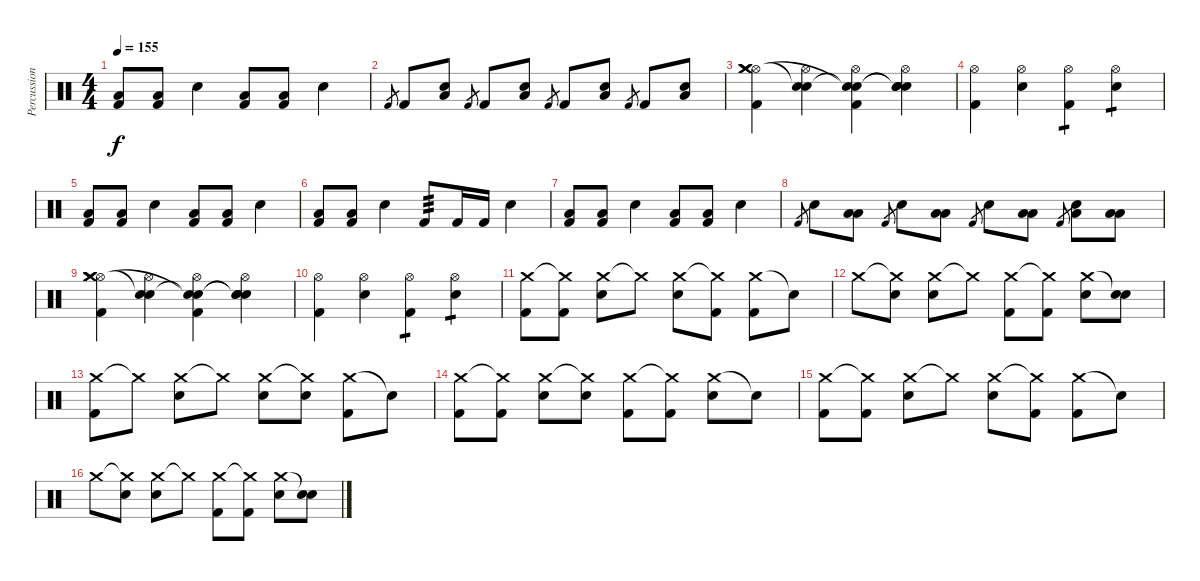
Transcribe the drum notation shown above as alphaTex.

\track ("Percussioni" "Percussion") {instrument percussion}
\staff {score}
\articulation defaults
\ts (4 4)
\tempo 155
\clef neutral
\ks c
("Kick (hit) 2" "Low Tom (hit)").8{dy f} ("Kick (hit) 2" "Low Tom (hit)").8 "Snare (hit) 2".4 ("Kick (hit) 2" "Low Tom (hit)").8 ("Kick (hit) 2" "Low Tom (hit)").8 "Snare (hit) 2".4 |
"Kick (hit) 2".8{gr} "Kick (hit) 2".8 ("Snare (hit) 2" "Low Floor Tom (hit)").8 "Kick (hit) 2".8{gr} "Kick (hit) 2".8 ("Snare (hit) 2" "Low Tom (hit)").8 "Kick (hit) 2".8{gr} "Kick (hit) 2".8 ("Snare (hit) 2" "Low Floor Tom (hit)").8 "Kick (hit) 2".8{gr} "Kick (hit) 2".8 ("Snare (hit) 2" "Low Tom (hit)").8 |
("Hi-Hat (open)" "Kick (hit) 2" "Crash medium (hit)" "Crash medium (hit)" "Crash medium (hit)").4 ("Snare (hit) 2" "Hi-Hat (open)" "Snare (hit)"{t}).4 ("Hi-Hat (open)" "Kick (hit) 2" "Snare (hit)"{t} "Snare (hit)"{t}).4 ("Snare (hit) 2" "Hi-Hat (open)" "Snare (hit)"{t} "Snare (hit)"{t}).4 |
("Hi-Hat (open)" "Kick (hit) 2").4 ("Snare (hit) 2" "Hi-Hat (open)").4 ("Hi-Hat (open)" "Kick (hit) 2").4{tp 1} ("Snare (hit) 2" "Hi-Hat (open)").4{tp 1} |
("Kick (hit) 2" "Low Tom (hit)").8 ("Kick (hit) 2" "Low Tom (hit)").8 "Snare (hit) 2".4 ("Kick (hit) 2" "Low Tom (hit)").8 ("Kick (hit) 2" "Low Tom (hit)").8 "Snare (hit) 2".4 |
("Kick (hit) 2" "Low Tom (hit)").8 ("Kick (hit) 2" "Low Tom (hit)").8 "Snare (hit) 2".4 "Kick (hit) 2".8{tp 3} "Kick (hit) 2".16 "Kick (hit) 2".16 "Snare (hit) 2".4 |
("Kick (hit) 2" "Low Tom (hit)").8 ("Kick (hit) 2" "Low Tom (hit)").8 "Snare (hit) 2".4 ("Kick (hit) 2" "Low Tom (hit)").8 ("Kick (hit) 2" "Low Tom (hit)").8 "Snare (hit) 2".4 |
"Kick (hit) 2".8{gr} "Snare (hit) 2".8 ("Low Tom (hit)" "Low Floor Tom (hit)").8 "Kick (hit) 2".8{gr} "Snare (hit) 2".8 ("Low Floor Tom (hit)" "Low Tom (hit)").8 "Kick (hit) 2".8{gr} "Snare (hit) 2".8 ("Low Tom (hit)" "Low Floor Tom (hit)").8 "Kick (hit) 2".8{gr} ("Low Tom (hit)" "Snare (hit) 2").8 ("Low Floor Tom (hit)" "Low Tom (hit)").8 |
("Hi-Hat (open)" "Kick (hit) 2" "Crash medium (hit)" "Crash medium (hit)" "Crash medium (hit)").4 ("Snare (hit) 2" "Hi-Hat (open)" "Snare (hit)"{t}).4 ("Hi-Hat (open)" "Kick (hit) 2" "Snare (hit)"{t} "Snare (hit)"{t}).4 ("Snare (hit) 2" "Hi-Hat (open)" "Snare (hit)"{t} "Snare (hit)"{t}).4 |
("Hi-Hat (open)" "Kick (hit) 2").4 ("Snare (hit) 2" "Hi-Hat (open)").4 ("Hi-Hat (open)" "Kick (hit) 2").4{tp 1} ("Snare (hit) 2" "Hi-Hat (open)").4{tp 1} |
("Crash medium (hit)" "Kick (hit) 2").8 ("Crash medium (hit)"{t} "Kick (hit) 2").8 ("Crash medium (hit)" "Snare (hit) 2").8 "Crash medium (hit)"{t}.8 ("Crash medium (hit)" "Snare (hit) 2").8 ("Crash medium (hit)"{t} "Kick (hit) 2").8 ("Crash medium (hit)" "Kick (hit) 2").8 "Snare (hit)"{t}.8 |
"Crash medium (hit)".8 ("Crash medium (hit)"{t} "Snare (hit) 2").8 ("Crash medium (hit)" "Snare (hit) 2").8 "Crash medium (hit)"{t}.8 ("Crash medium (hit)" "Kick (hit) 2").8 ("Crash medium (hit)"{t} "Kick (hit) 2").8 ("Crash medium (hit)" "Snare (hit) 2").8 ("Snare (hit)"{t} "Snare (hit) 2").8 |
("Crash medium (hit)" "Kick (hit) 2").8 "Crash medium (hit)"{t}.8 ("Crash medium (hit)" "Snare (hit) 2").8 "Crash medium (hit)"{t}.8 ("Crash medium (hit)" "Snare (hit) 2").8 ("Crash medium (hit)"{t} "Snare (hit) 2").8 ("Crash medium (hit)" "Kick (hit) 2").8 "Snare (hit)"{t}.8 |
("Crash medium (hit)" "Kick (hit) 2").8 ("Crash medium (hit)"{t} "Kick (hit) 2").8 ("Crash medium (hit)" "Snare (hit) 2").8 ("Crash medium (hit)"{t} "Snare (hit) 2").8 ("Crash medium (hit)" "Kick (hit) 2").8 ("Crash medium (hit)"{t} "Kick (hit) 2").8 ("Crash medium (hit)" "Snare (hit) 2").8 "Snare (hit)"{t}.8 |
("Crash medium (hit)" "Kick (hit) 2").8 ("Crash medium (hit)"{t} "Kick (hit) 2").8 ("Crash medium (hit)" "Snare (hit) 2").8 "Crash medium (hit)"{t}.8 ("Crash medium (hit)" "Snare (hit) 2").8 ("Crash medium (hit)"{t} "Kick (hit) 2").8 ("Crash medium (hit)" "Kick (hit) 2").8 "Snare (hit)"{t}.8 |
"Crash medium (hit)".8 ("Crash medium (hit)"{t} "Snare (hit) 2").8 ("Crash medium (hit)" "Snare (hit) 2").8 "Crash medium (hit)"{t}.8 ("Crash medium (hit)" "Kick (hit) 2").8 ("Crash medium (hit)"{t} "Kick (hit) 2").8 ("Crash medium (hit)" "Snare (hit) 2").8 ("Snare (hit)"{t} "Snare (hit) 2").8
